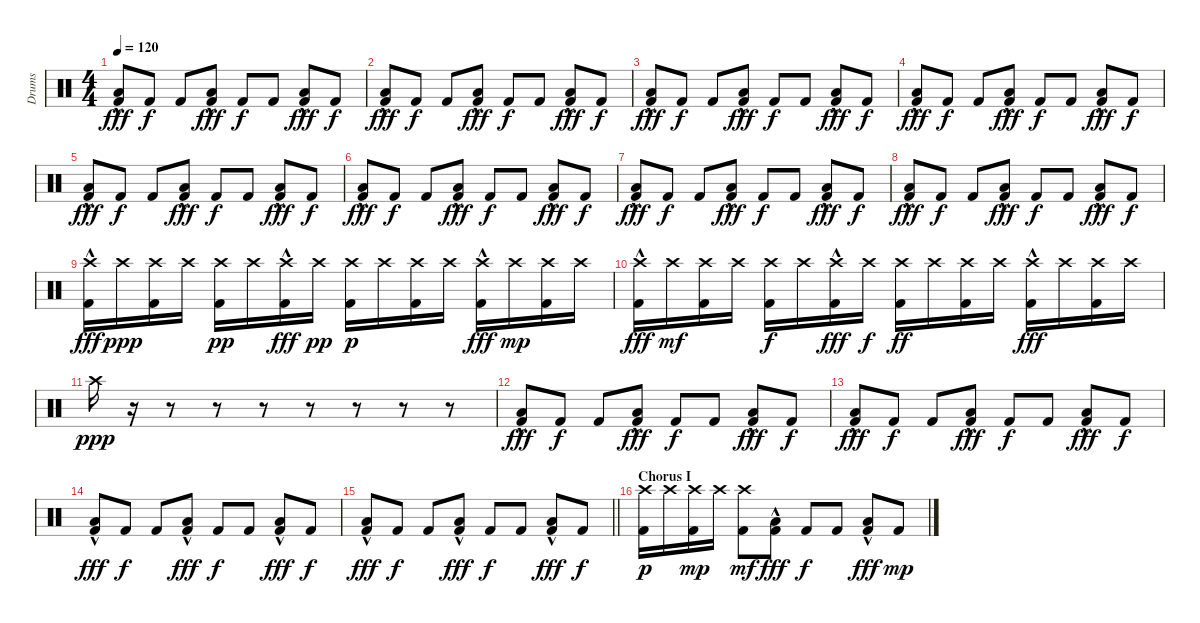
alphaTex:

\track ("Drums" "Drums") {instrument percussion}
\staff {score}
\articulation defaults
\ts (4 4)
\tempo 120
\clef neutral
\ks c
("Low Floor Tom (hit)" "Kick (hit) 2"{hac}).8{dy fff} "Kick (hit) 2".8{dy f} "Kick (hit) 2".8 ("Low Floor Tom (hit)" "Kick (hit) 2"{hac}).8{dy fff} "Kick (hit) 2".8{dy f} "Kick (hit) 2".8 ("Low Floor Tom (hit)" "Kick (hit) 2"{hac}).8{dy fff} "Kick (hit) 2".8{dy f} |
("Low Floor Tom (hit)" "Kick (hit) 2"{hac}).8{dy fff} "Kick (hit) 2".8{dy f} "Kick (hit) 2".8 ("Low Floor Tom (hit)" "Kick (hit) 2"{hac}).8{dy fff} "Kick (hit) 2".8{dy f} "Kick (hit) 2".8 ("Low Floor Tom (hit)" "Kick (hit) 2"{hac}).8{dy fff} "Kick (hit) 2".8{dy f} |
("Low Floor Tom (hit)" "Kick (hit) 2"{hac}).8{dy fff} "Kick (hit) 2".8{dy f} "Kick (hit) 2".8 ("Low Floor Tom (hit)" "Kick (hit) 2"{hac}).8{dy fff} "Kick (hit) 2".8{dy f} "Kick (hit) 2".8 ("Low Floor Tom (hit)" "Kick (hit) 2"{hac}).8{dy fff} "Kick (hit) 2".8{dy f} |
("Low Floor Tom (hit)" "Kick (hit) 2"{hac}).8{dy fff} "Kick (hit) 2".8{dy f} "Kick (hit) 2".8 ("Low Floor Tom (hit)" "Kick (hit) 2"{hac}).8{dy fff} "Kick (hit) 2".8{dy f} "Kick (hit) 2".8 ("Low Floor Tom (hit)" "Kick (hit) 2"{hac}).8{dy fff} "Kick (hit) 2".8{dy f} |
("Low Floor Tom (hit)" "Kick (hit) 2"{hac}).8{dy fff} "Kick (hit) 2".8{dy f} "Kick (hit) 2".8 ("Low Floor Tom (hit)" "Kick (hit) 2"{hac}).8{dy fff} "Kick (hit) 2".8{dy f} "Kick (hit) 2".8 ("Low Floor Tom (hit)" "Kick (hit) 2"{hac}).8{dy fff} "Kick (hit) 2".8{dy f} |
("Low Floor Tom (hit)" "Kick (hit) 2"{hac}).8{dy fff} "Kick (hit) 2".8{dy f} "Kick (hit) 2".8 ("Low Floor Tom (hit)" "Kick (hit) 2"{hac}).8{dy fff} "Kick (hit) 2".8{dy f} "Kick (hit) 2".8 ("Low Floor Tom (hit)" "Kick (hit) 2"{hac}).8{dy fff} "Kick (hit) 2".8{dy f} |
("Low Floor Tom (hit)" "Kick (hit) 2"{hac}).8{dy fff} "Kick (hit) 2".8{dy f} "Kick (hit) 2".8 ("Low Floor Tom (hit)" "Kick (hit) 2"{hac}).8{dy fff} "Kick (hit) 2".8{dy f} "Kick (hit) 2".8 ("Low Floor Tom (hit)" "Kick (hit) 2"{hac}).8{dy fff} "Kick (hit) 2".8{dy f} |
("Low Floor Tom (hit)" "Kick (hit) 2"{hac}).8{dy fff} "Kick (hit) 2".8{dy f} "Kick (hit) 2".8 ("Low Floor Tom (hit)" "Kick (hit) 2"{hac}).8{dy fff} "Kick (hit) 2".8{dy f} "Kick (hit) 2".8 ("Low Floor Tom (hit)" "Kick (hit) 2"{hac}).8{dy fff} "Kick (hit) 2".8{dy f} |
("Crash high (hit)" "Kick (hit) 2"{hac}).16{dy fff} "Crash high (hit)".16{dy ppp} ("Crash high (hit)" "Kick (hit) 2").16 "Crash high (hit)".16 ("Crash high (hit)" "Kick (hit) 2").16{dy pp} "Crash high (hit)".16 ("Crash high (hit)" "Kick (hit) 2"{hac}).16{dy fff} "Crash high (hit)".16{dy pp} ("Crash high (hit)" "Kick (hit) 2").16{dy p} "Crash high (hit)".16 ("Crash high (hit)" "Kick (hit) 2").16 "Crash high (hit)".16 ("Crash high (hit)" "Kick (hit) 2"{hac}).16{dy fff} "Crash high (hit)".16{dy mp} ("Crash high (hit)" "Kick (hit) 2").16 "Crash high (hit)".16 |
("Crash high (hit)" "Kick (hit) 2"{hac}).16{dy fff} "Crash high (hit)".16{dy mf} ("Crash high (hit)" "Kick (hit) 2").16 "Crash high (hit)".16 ("Crash high (hit)" "Kick (hit) 2").16{dy f} "Crash high (hit)".16 ("Crash high (hit)" "Kick (hit) 2"{hac}).16{dy fff} "Crash high (hit)".16{dy f} ("Crash high (hit)" "Kick (hit) 2").16{dy ff} "Crash high (hit)".16 ("Crash high (hit)" "Kick (hit) 2").16 "Crash high (hit)".16 ("Crash high (hit)" "Kick (hit) 2"{hac}).16{dy fff} "Crash high (hit)".16 ("Crash high (hit)" "Kick (hit) 2").16 "Crash high (hit)".16 |
"Crash high (hit)".16{dy ppp} r.16 r.8 r.8 r.8 r.8 r.8 r.8 r.8 |
("Low Floor Tom (hit)" "Kick (hit) 2"{hac}).8{dy fff} "Kick (hit) 2".8{dy f} "Kick (hit) 2".8 ("Low Floor Tom (hit)" "Kick (hit) 2"{hac}).8{dy fff} "Kick (hit) 2".8{dy f} "Kick (hit) 2".8 ("Low Floor Tom (hit)" "Kick (hit) 2"{hac}).8{dy fff} "Kick (hit) 2".8{dy f} |
("Low Floor Tom (hit)" "Kick (hit) 2"{hac}).8{dy fff} "Kick (hit) 2".8{dy f} "Kick (hit) 2".8 ("Low Floor Tom (hit)" "Kick (hit) 2"{hac}).8{dy fff} "Kick (hit) 2".8{dy f} "Kick (hit) 2".8 ("Low Floor Tom (hit)" "Kick (hit) 2"{hac}).8{dy fff} "Kick (hit) 2".8{dy f} |
("Low Floor Tom (hit)" "Kick (hit) 2"{hac}).8{dy fff} "Kick (hit) 2".8{dy f} "Kick (hit) 2".8 ("Low Floor Tom (hit)" "Kick (hit) 2"{hac}).8{dy fff} "Kick (hit) 2".8{dy f} "Kick (hit) 2".8 ("Low Floor Tom (hit)" "Kick (hit) 2"{hac}).8{dy fff} "Kick (hit) 2".8{dy f} |
\barLineRight lightlight
("Low Floor Tom (hit)" "Kick (hit) 2"{hac}).8{dy fff} "Kick (hit) 2".8{dy f} "Kick (hit) 2".8 ("Low Floor Tom (hit)" "Kick (hit) 2"{hac}).8{dy fff} "Kick (hit) 2".8{dy f} "Kick (hit) 2".8 ("Low Floor Tom (hit)" "Kick (hit) 2"{hac}).8{dy fff} "Kick (hit) 2".8{dy f} |
\section ("" "Chorus I")
("Crash high (hit)" "Kick (hit) 2").16{dy p} "Crash high (hit)".16 ("Crash high (hit)" "Kick (hit) 2").16{dy mp} "Crash high (hit)".16 ("Crash high (hit)" "Kick (hit) 2").8{dy mf} ("Low Floor Tom (hit)"{hac} "Kick (hit) 2"{hac}).8{dy fff} "Kick (hit) 2".8{dy f} "Kick (hit) 2".8 ("Low Floor Tom (hit)"{hac} "Kick (hit) 2"{hac}).8{dy fff} "Kick (hit) 2".8{dy mp}
